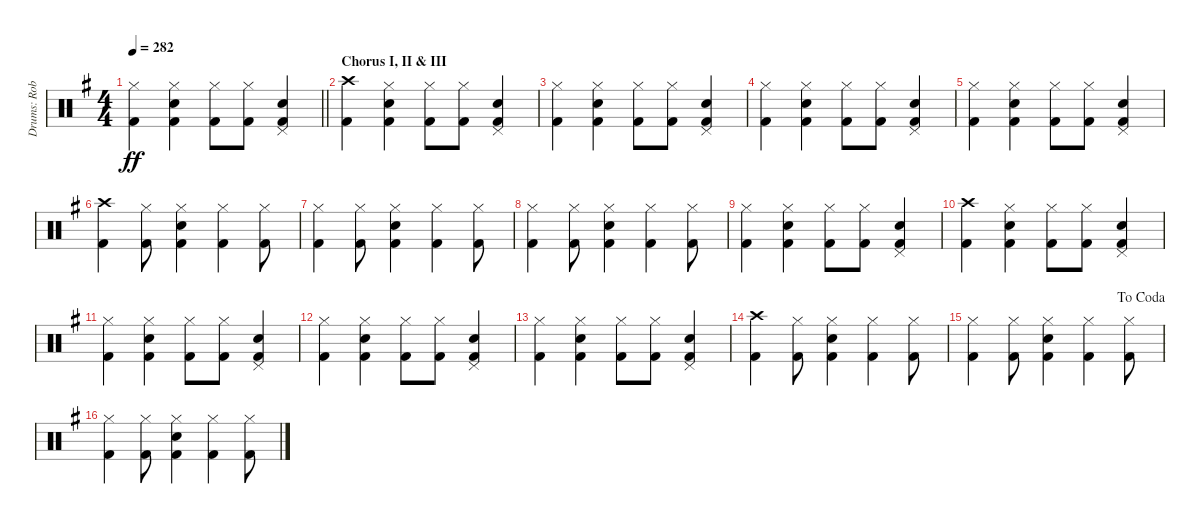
\track ("Drums: Rob" "Drums: Rob") {instrument percussion}
\staff {score}
\articulation defaults
\ts (4 4)
\tempo 282
\clef neutral
\barLineRight lightlight
\ks g
("Hi-Hat (closed)" "Kick (hit) 2").4{dy ff} ("Hi-Hat (closed)" "Snare (hit) 2" "Kick (hit) 2").4 ("Hi-Hat (closed)" "Kick (hit) 2").8 ("Hi-Hat (closed)" "Kick (hit) 2").8 ("Pedal Hi-Hat (hit)" "Snare (hit) 2" "Kick (hit) 2").4 |
\section ("" "Chorus I, II & III")
("Crash high (hit)" "Kick (hit) 2").4 ("Hi-Hat (closed)" "Snare (hit) 2" "Kick (hit) 2").4 ("Hi-Hat (closed)" "Kick (hit) 2").8 ("Hi-Hat (closed)" "Kick (hit) 2").8 ("Pedal Hi-Hat (hit)" "Snare (hit) 2" "Kick (hit) 2").4 |
("Hi-Hat (closed)" "Kick (hit) 2").4 ("Hi-Hat (closed)" "Snare (hit) 2" "Kick (hit) 2").4 ("Hi-Hat (closed)" "Kick (hit) 2").8 ("Hi-Hat (closed)" "Kick (hit) 2").8 ("Pedal Hi-Hat (hit)" "Snare (hit) 2" "Kick (hit) 2").4 |
("Hi-Hat (closed)" "Kick (hit) 2").4 ("Hi-Hat (closed)" "Snare (hit) 2" "Kick (hit) 2").4 ("Hi-Hat (closed)" "Kick (hit) 2").8 ("Hi-Hat (closed)" "Kick (hit) 2").8 ("Pedal Hi-Hat (hit)" "Snare (hit) 2" "Kick (hit) 2").4 |
("Hi-Hat (closed)" "Kick (hit) 2").4 ("Hi-Hat (closed)" "Snare (hit) 2" "Kick (hit) 2").4 ("Hi-Hat (closed)" "Kick (hit) 2").8 ("Hi-Hat (closed)" "Kick (hit) 2").8 ("Pedal Hi-Hat (hit)" "Snare (hit) 2" "Kick (hit) 2").4 |
("Crash high (hit)" "Kick (hit) 2").4 ("Hi-Hat (closed)" "Kick (hit) 2").8 ("Hi-Hat (closed)" "Snare (hit) 2" "Kick (hit) 2").4 ("Hi-Hat (closed)" "Kick (hit) 2").4 ("Hi-Hat (closed)" "Kick (hit) 2").8 |
("Hi-Hat (closed)" "Kick (hit) 2").4 ("Hi-Hat (closed)" "Kick (hit) 2").8 ("Hi-Hat (closed)" "Snare (hit) 2" "Kick (hit) 2").4 ("Hi-Hat (closed)" "Kick (hit) 2").4 ("Hi-Hat (closed)" "Kick (hit) 2").8 |
("Hi-Hat (closed)" "Kick (hit) 2").4 ("Hi-Hat (closed)" "Kick (hit) 2").8 ("Hi-Hat (closed)" "Snare (hit) 2" "Kick (hit) 2").4 ("Hi-Hat (closed)" "Kick (hit) 2").4 ("Hi-Hat (closed)" "Kick (hit) 2").8 |
("Hi-Hat (closed)" "Kick (hit) 2").4 ("Hi-Hat (closed)" "Snare (hit) 2" "Kick (hit) 2").4 ("Hi-Hat (closed)" "Kick (hit) 2").8 ("Hi-Hat (closed)" "Kick (hit) 2").8 ("Pedal Hi-Hat (hit)" "Snare (hit) 2" "Kick (hit) 2").4 |
("Crash high (hit)" "Kick (hit) 2").4 ("Hi-Hat (closed)" "Snare (hit) 2" "Kick (hit) 2").4 ("Hi-Hat (closed)" "Kick (hit) 2").8 ("Hi-Hat (closed)" "Kick (hit) 2").8 ("Pedal Hi-Hat (hit)" "Snare (hit) 2" "Kick (hit) 2").4 |
("Hi-Hat (closed)" "Kick (hit) 2").4 ("Hi-Hat (closed)" "Snare (hit) 2" "Kick (hit) 2").4 ("Hi-Hat (closed)" "Kick (hit) 2").8 ("Hi-Hat (closed)" "Kick (hit) 2").8 ("Pedal Hi-Hat (hit)" "Snare (hit) 2" "Kick (hit) 2").4 |
("Hi-Hat (closed)" "Kick (hit) 2").4 ("Hi-Hat (closed)" "Snare (hit) 2" "Kick (hit) 2").4 ("Hi-Hat (closed)" "Kick (hit) 2").8 ("Hi-Hat (closed)" "Kick (hit) 2").8 ("Pedal Hi-Hat (hit)" "Snare (hit) 2" "Kick (hit) 2").4 |
("Hi-Hat (closed)" "Kick (hit) 2").4 ("Hi-Hat (closed)" "Snare (hit) 2" "Kick (hit) 2").4 ("Hi-Hat (closed)" "Kick (hit) 2").8 ("Hi-Hat (closed)" "Kick (hit) 2").8 ("Pedal Hi-Hat (hit)" "Snare (hit) 2" "Kick (hit) 2").4 |
("Crash high (hit)" "Kick (hit) 2").4 ("Hi-Hat (closed)" "Kick (hit) 2").8 ("Hi-Hat (closed)" "Snare (hit) 2" "Kick (hit) 2").4 ("Hi-Hat (closed)" "Kick (hit) 2").4 ("Hi-Hat (closed)" "Kick (hit) 2").8 |
\jump dacoda
("Hi-Hat (closed)" "Kick (hit) 2").4 ("Hi-Hat (closed)" "Kick (hit) 2").8 ("Hi-Hat (closed)" "Snare (hit) 2" "Kick (hit) 2").4 ("Hi-Hat (closed)" "Kick (hit) 2").4 ("Hi-Hat (closed)" "Kick (hit) 2").8 |
("Hi-Hat (closed)" "Kick (hit) 2").4 ("Hi-Hat (closed)" "Kick (hit) 2").8 ("Hi-Hat (closed)" "Snare (hit) 2" "Kick (hit) 2").4 ("Hi-Hat (closed)" "Kick (hit) 2").4 ("Hi-Hat (closed)" "Kick (hit) 2").8
